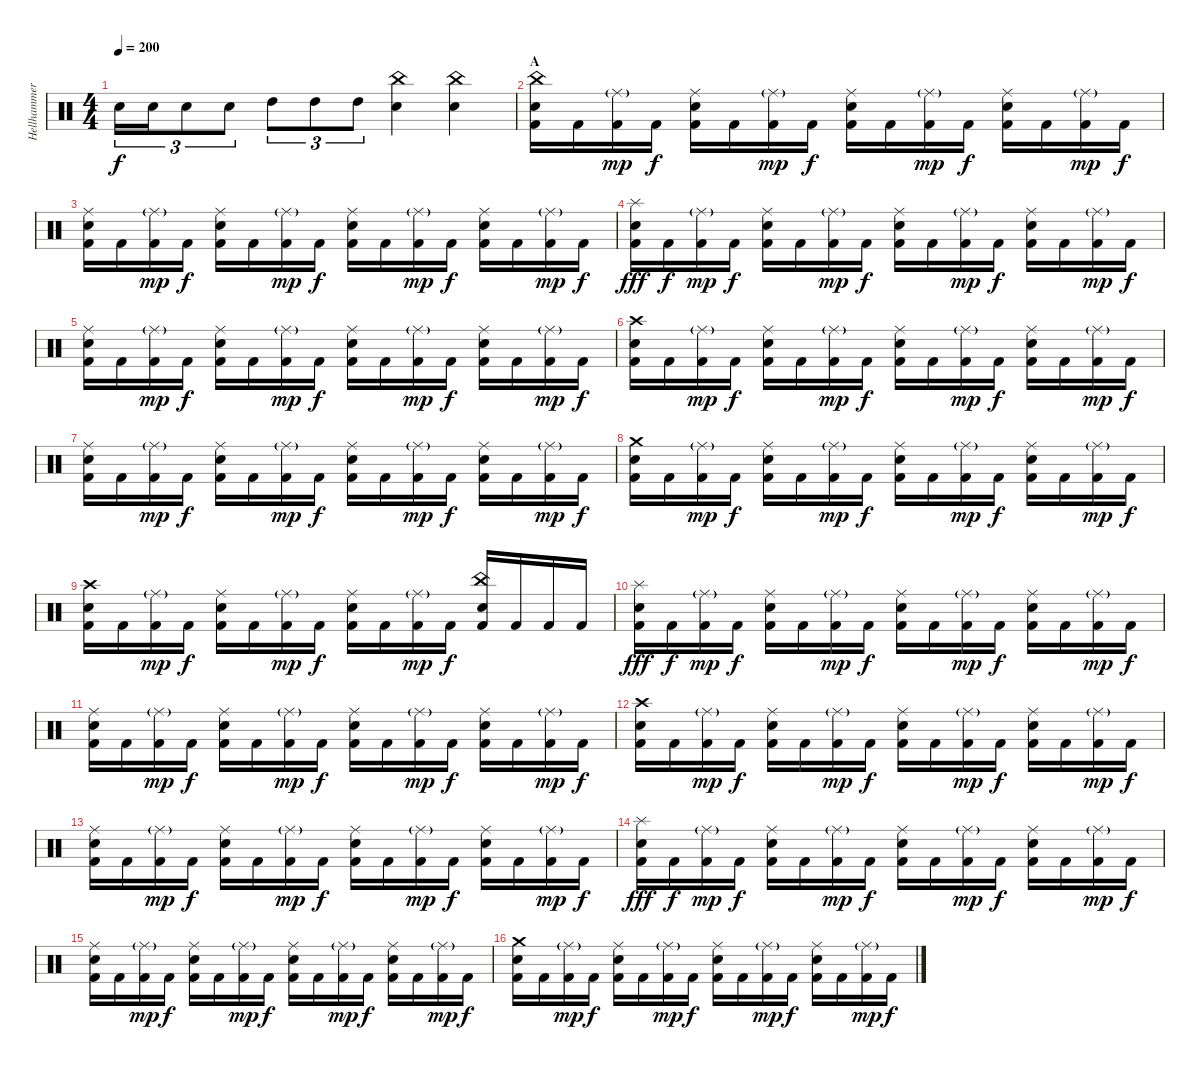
\track ("Hellhammer" "Hellhammer") {instrument percussion}
\staff {score}
\articulation defaults
\ts (4 4)
\tempo 200
\clef neutral
\ks c "Electric Snare (hit)".16{tu (3 2) dy f} "Electric Snare (hit)".16{tu (3 2)} "Electric Snare (hit)".8{tu (3 2)} "Electric Snare (hit)".8{tu (3 2)} "High Tom (hit)".8{tu (3 2)} "High Tom (hit)".8{tu (3 2)} "High Tom (hit)".8{tu (3 2)}
("Electric Snare (hit)" "China (hit)").4 ("Electric Snare (hit)" "China (hit)").4 |
\section ("" "A")
("Kick (hit) 2" "Electric Snare (hit)" "China (hit)").16 "Kick (hit) 2".16 ("Kick (hit) 2" "Ride (middle)"{g}).16{dy mp} "Kick (hit) 2".16{dy f} ("Kick (hit) 2" "Electric Snare (hit)" "Ride (middle)").16 "Kick (hit) 2".16 ("Kick (hit) 2" "Ride (middle)"{g}).16{dy mp} "Kick (hit) 2".16{dy f} ("Kick (hit) 2" "Electric Snare (hit)" "Ride (middle)").16 "Kick (hit) 2".16 ("Kick (hit) 2" "Ride (middle)"{g}).16{dy mp} "Kick (hit) 2".16{dy f} ("Kick (hit) 2" "Electric Snare (hit)" "Ride (middle)").16 "Kick (hit) 2".16 ("Kick (hit) 2" "Ride (middle)"{g}).16{dy mp} "Kick (hit) 2".16{dy f} |
("Kick (hit) 2" "Electric Snare (hit)" "Ride (middle)").16 "Kick (hit) 2".16 ("Kick (hit) 2" "Ride (middle)"{g}).16{dy mp} "Kick (hit) 2".16{dy f} ("Kick (hit) 2" "Electric Snare (hit)" "Ride (middle)").16 "Kick (hit) 2".16 ("Kick (hit) 2" "Ride (middle)"{g}).16{dy mp} "Kick (hit) 2".16{dy f} ("Kick (hit) 2" "Electric Snare (hit)" "Ride (middle)").16 "Kick (hit) 2".16 ("Kick (hit) 2" "Ride (middle)"{g}).16{dy mp} "Kick (hit) 2".16{dy f} ("Kick (hit) 2" "Electric Snare (hit)" "Ride (middle)").16 "Kick (hit) 2".16 ("Kick (hit) 2" "Ride (middle)"{g}).16{dy mp} "Kick (hit) 2".16{dy f} |
("Kick (hit) 2" "Electric Snare (hit)" "Splash (hit)").16{dy fff} "Kick (hit) 2".16{dy f} ("Kick (hit) 2" "Ride (middle)"{g}).16{dy mp} "Kick (hit) 2".16{dy f} ("Kick (hit) 2" "Electric Snare (hit)" "Ride (middle)").16 "Kick (hit) 2".16 ("Kick (hit) 2" "Ride (middle)"{g}).16{dy mp} "Kick (hit) 2".16{dy f} ("Kick (hit) 2" "Electric Snare (hit)" "Ride (middle)").16 "Kick (hit) 2".16 ("Kick (hit) 2" "Ride (middle)"{g}).16{dy mp} "Kick (hit) 2".16{dy f} ("Kick (hit) 2" "Electric Snare (hit)" "Ride (middle)").16 "Kick (hit) 2".16 ("Kick (hit) 2" "Ride (middle)"{g}).16{dy mp} "Kick (hit) 2".16{dy f} |
("Kick (hit) 2" "Electric Snare (hit)" "Ride (middle)").16 "Kick (hit) 2".16 ("Kick (hit) 2" "Ride (middle)"{g}).16{dy mp} "Kick (hit) 2".16{dy f} ("Kick (hit) 2" "Electric Snare (hit)" "Ride (middle)").16 "Kick (hit) 2".16 ("Kick (hit) 2" "Ride (middle)"{g}).16{dy mp} "Kick (hit) 2".16{dy f} ("Kick (hit) 2" "Electric Snare (hit)" "Ride (middle)").16 "Kick (hit) 2".16 ("Kick (hit) 2" "Ride (middle)"{g}).16{dy mp} "Kick (hit) 2".16{dy f} ("Kick (hit) 2" "Electric Snare (hit)" "Ride (middle)").16 "Kick (hit) 2".16 ("Kick (hit) 2" "Ride (middle)"{g}).16{dy mp} "Kick (hit) 2".16{dy f} |
("Kick (hit) 2" "Electric Snare (hit)" "Crash high (hit)").16 "Kick (hit) 2".16 ("Kick (hit) 2" "Ride (middle)"{g}).16{dy mp} "Kick (hit) 2".16{dy f} ("Kick (hit) 2" "Electric Snare (hit)" "Ride (middle)").16 "Kick (hit) 2".16 ("Kick (hit) 2" "Ride (middle)"{g}).16{dy mp} "Kick (hit) 2".16{dy f} ("Kick (hit) 2" "Electric Snare (hit)" "Ride (middle)").16 "Kick (hit) 2".16 ("Kick (hit) 2" "Ride (middle)"{g}).16{dy mp} "Kick (hit) 2".16{dy f} ("Kick (hit) 2" "Electric Snare (hit)" "Ride (middle)").16 "Kick (hit) 2".16 ("Kick (hit) 2" "Ride (middle)"{g}).16{dy mp} "Kick (hit) 2".16{dy f} |
("Kick (hit) 2" "Electric Snare (hit)" "Ride (middle)").16 "Kick (hit) 2".16 ("Kick (hit) 2" "Ride (middle)"{g}).16{dy mp} "Kick (hit) 2".16{dy f} ("Kick (hit) 2" "Electric Snare (hit)" "Ride (middle)").16 "Kick (hit) 2".16 ("Kick (hit) 2" "Ride (middle)"{g}).16{dy mp} "Kick (hit) 2".16{dy f} ("Kick (hit) 2" "Electric Snare (hit)" "Ride (middle)").16 "Kick (hit) 2".16 ("Kick (hit) 2" "Ride (middle)"{g}).16{dy mp} "Kick (hit) 2".16{dy f} ("Kick (hit) 2" "Electric Snare (hit)" "Ride (middle)").16 "Kick (hit) 2".16 ("Kick (hit) 2" "Ride (middle)"{g}).16{dy mp} "Kick (hit) 2".16{dy f} |
("Kick (hit) 2" "Electric Snare (hit)" "Crash medium (hit)").16 "Kick (hit) 2".16 ("Kick (hit) 2" "Ride (middle)"{g}).16{dy mp} "Kick (hit) 2".16{dy f} ("Kick (hit) 2" "Electric Snare (hit)" "Ride (middle)").16 "Kick (hit) 2".16 ("Kick (hit) 2" "Ride (middle)"{g}).16{dy mp} "Kick (hit) 2".16{dy f} ("Kick (hit) 2" "Electric Snare (hit)" "Ride (middle)").16 "Kick (hit) 2".16 ("Kick (hit) 2" "Ride (middle)"{g}).16{dy mp} "Kick (hit) 2".16{dy f} ("Kick (hit) 2" "Electric Snare (hit)" "Ride (middle)").16 "Kick (hit) 2".16 ("Kick (hit) 2" "Ride (middle)"{g}).16{dy mp} "Kick (hit) 2".16{dy f} |
("Kick (hit) 2" "Electric Snare (hit)" "Crash high (hit)").16 "Kick (hit) 2".16 ("Kick (hit) 2" "Ride (middle)"{g}).16{dy mp} "Kick (hit) 2".16{dy f} ("Kick (hit) 2" "Electric Snare (hit)" "Ride (middle)").16 "Kick (hit) 2".16 ("Kick (hit) 2" "Ride (middle)"{g}).16{dy mp} "Kick (hit) 2".16{dy f} ("Kick (hit) 2" "Electric Snare (hit)" "Ride (middle)").16 "Kick (hit) 2".16 ("Kick (hit) 2" "Ride (middle)"{g}).16{dy mp} "Kick (hit) 2".16{dy f} ("Kick (hit) 2" "Electric Snare (hit)" "China (hit)").16 "Kick (hit) 2".16 "Kick (hit) 2".16 "Kick (hit) 2".16 |
("Kick (hit) 2" "Electric Snare (hit)" "Splash (hit)").16{dy fff} "Kick (hit) 2".16{dy f} ("Kick (hit) 2" "Ride (middle)"{g}).16{dy mp} "Kick (hit) 2".16{dy f} ("Kick (hit) 2" "Electric Snare (hit)" "Ride (middle)").16 "Kick (hit) 2".16 ("Kick (hit) 2" "Ride (middle)"{g}).16{dy mp} "Kick (hit) 2".16{dy f} ("Kick (hit) 2" "Electric Snare (hit)" "Ride (middle)").16 "Kick (hit) 2".16 ("Kick (hit) 2" "Ride (middle)"{g}).16{dy mp} "Kick (hit) 2".16{dy f} ("Kick (hit) 2" "Electric Snare (hit)" "Ride (middle)").16 "Kick (hit) 2".16 ("Kick (hit) 2" "Ride (middle)"{g}).16{dy mp} "Kick (hit) 2".16{dy f} |
("Kick (hit) 2" "Electric Snare (hit)" "Ride (middle)").16 "Kick (hit) 2".16 ("Kick (hit) 2" "Ride (middle)"{g}).16{dy mp} "Kick (hit) 2".16{dy f} ("Kick (hit) 2" "Electric Snare (hit)" "Ride (middle)").16 "Kick (hit) 2".16 ("Kick (hit) 2" "Ride (middle)"{g}).16{dy mp} "Kick (hit) 2".16{dy f} ("Kick (hit) 2" "Electric Snare (hit)" "Ride (middle)").16 "Kick (hit) 2".16 ("Kick (hit) 2" "Ride (middle)"{g}).16{dy mp} "Kick (hit) 2".16{dy f} ("Kick (hit) 2" "Electric Snare (hit)" "Ride (middle)").16 "Kick (hit) 2".16 ("Kick (hit) 2" "Ride (middle)"{g}).16{dy mp} "Kick (hit) 2".16{dy f} |
("Kick (hit) 2" "Electric Snare (hit)" "Crash high (hit)").16 "Kick (hit) 2".16 ("Kick (hit) 2" "Ride (middle)"{g}).16{dy mp} "Kick (hit) 2".16{dy f} ("Kick (hit) 2" "Electric Snare (hit)" "Ride (middle)").16 "Kick (hit) 2".16 ("Kick (hit) 2" "Ride (middle)"{g}).16{dy mp} "Kick (hit) 2".16{dy f} ("Kick (hit) 2" "Electric Snare (hit)" "Ride (middle)").16 "Kick (hit) 2".16 ("Kick (hit) 2" "Ride (middle)"{g}).16{dy mp} "Kick (hit) 2".16{dy f} ("Kick (hit) 2" "Electric Snare (hit)" "Ride (middle)").16 "Kick (hit) 2".16 ("Kick (hit) 2" "Ride (middle)"{g}).16{dy mp} "Kick (hit) 2".16{dy f} |
("Kick (hit) 2" "Electric Snare (hit)" "Ride (middle)").16 "Kick (hit) 2".16 ("Kick (hit) 2" "Ride (middle)"{g}).16{dy mp} "Kick (hit) 2".16{dy f} ("Kick (hit) 2" "Electric Snare (hit)" "Ride (middle)").16 "Kick (hit) 2".16 ("Kick (hit) 2" "Ride (middle)"{g}).16{dy mp} "Kick (hit) 2".16{dy f} ("Kick (hit) 2" "Electric Snare (hit)" "Ride (middle)").16 "Kick (hit) 2".16 ("Kick (hit) 2" "Ride (middle)"{g}).16{dy mp} "Kick (hit) 2".16{dy f} ("Kick (hit) 2" "Electric Snare (hit)" "Ride (middle)").16 "Kick (hit) 2".16 ("Kick (hit) 2" "Ride (middle)"{g}).16{dy mp} "Kick (hit) 2".16{dy f} |
("Kick (hit) 2" "Electric Snare (hit)" "Splash (hit)").16{dy fff} "Kick (hit) 2".16{dy f} ("Kick (hit) 2" "Ride (middle)"{g}).16{dy mp} "Kick (hit) 2".16{dy f} ("Kick (hit) 2" "Electric Snare (hit)" "Ride (middle)").16 "Kick (hit) 2".16 ("Kick (hit) 2" "Ride (middle)"{g}).16{dy mp} "Kick (hit) 2".16{dy f} ("Kick (hit) 2" "Electric Snare (hit)" "Ride (middle)").16 "Kick (hit) 2".16 ("Kick (hit) 2" "Ride (middle)"{g}).16{dy mp} "Kick (hit) 2".16{dy f} ("Kick (hit) 2" "Electric Snare (hit)" "Ride (middle)").16 "Kick (hit) 2".16 ("Kick (hit) 2" "Ride (middle)"{g}).16{dy mp} "Kick (hit) 2".16{dy f} |
("Kick (hit) 2" "Electric Snare (hit)" "Ride (middle)").16 "Kick (hit) 2".16 ("Kick (hit) 2" "Ride (middle)"{g}).16{dy mp} "Kick (hit) 2".16{dy f} ("Kick (hit) 2" "Electric Snare (hit)" "Ride (middle)").16 "Kick (hit) 2".16 ("Kick (hit) 2" "Ride (middle)"{g}).16{dy mp} "Kick (hit) 2".16{dy f} ("Kick (hit) 2" "Electric Snare (hit)" "Ride (middle)").16 "Kick (hit) 2".16 ("Kick (hit) 2" "Ride (middle)"{g}).16{dy mp} "Kick (hit) 2".16{dy f} ("Kick (hit) 2" "Electric Snare (hit)" "Ride (middle)").16 "Kick (hit) 2".16 ("Kick (hit) 2" "Ride (middle)"{g}).16{dy mp} "Kick (hit) 2".16{dy f} |
("Kick (hit) 2" "Electric Snare (hit)" "Crash medium (hit)").16 "Kick (hit) 2".16 ("Kick (hit) 2" "Ride (middle)"{g}).16{dy mp} "Kick (hit) 2".16{dy f} ("Kick (hit) 2" "Electric Snare (hit)" "Ride (middle)").16 "Kick (hit) 2".16 ("Kick (hit) 2" "Ride (middle)"{g}).16{dy mp} "Kick (hit) 2".16{dy f} ("Kick (hit) 2" "Electric Snare (hit)" "Ride (middle)").16 "Kick (hit) 2".16 ("Kick (hit) 2" "Ride (middle)"{g}).16{dy mp} "Kick (hit) 2".16{dy f} ("Kick (hit) 2" "Electric Snare (hit)" "Ride (middle)").16 "Kick (hit) 2".16 ("Kick (hit) 2" "Ride (middle)"{g}).16{dy mp} "Kick (hit) 2".16{dy f}
